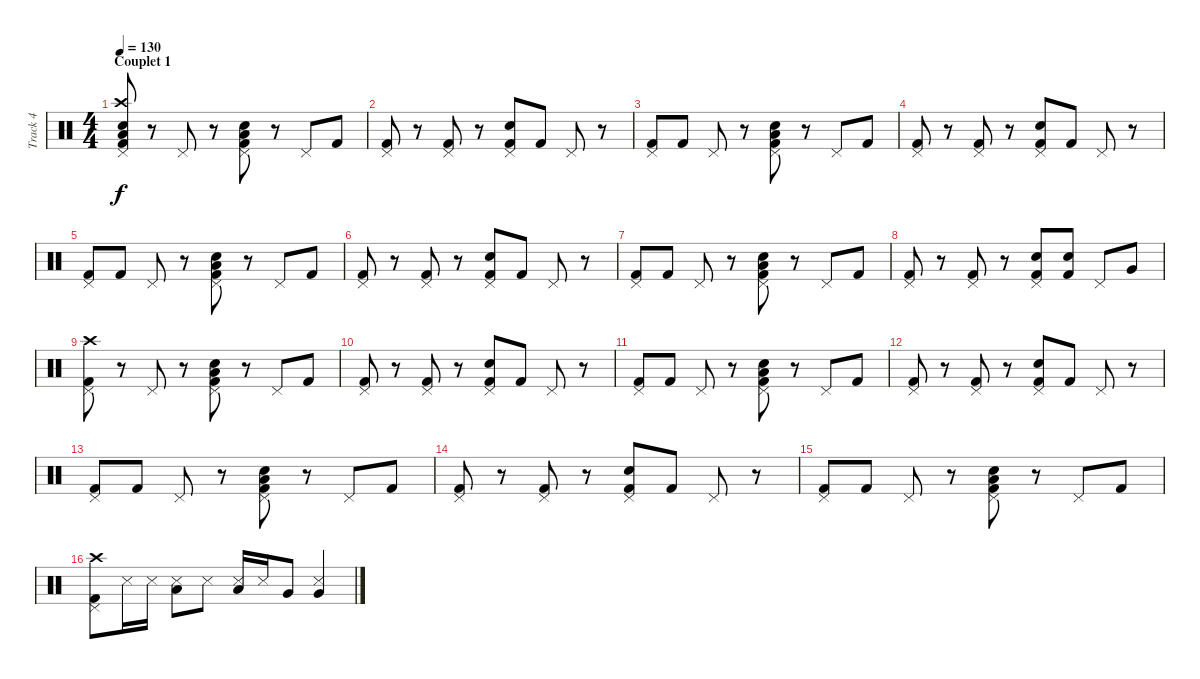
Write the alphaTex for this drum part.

\track ("Track 4" "Track 4") {instrument percussion}
\staff {score}
\articulation defaults
\ts (4 4)
\section ("" "Couplet 1")
\tempo 130
\clef neutral
\ks c
("Low Floor Tom (hit)" "Snare (hit) 2" "Crash high (hit)" "Kick (hit) 2" "Pedal Hi-Hat (hit)").8{dy f} r.8 "Pedal Hi-Hat (hit)".8 r.8 ("Low Tom (hit)" "Snare (hit) 2" "Kick (hit) 2" "Pedal Hi-Hat (hit)").8 r.8 "Pedal Hi-Hat (hit)".8 "Kick (hit) 2".8 |
("Kick (hit) 2" "Pedal Hi-Hat (hit)").8 r.8 ("Pedal Hi-Hat (hit)" "Kick (hit) 2").8 r.8 ("Pedal Hi-Hat (hit)" "Kick (hit) 2" "Snare (hit) 2").8 "Kick (hit) 2".8 "Pedal Hi-Hat (hit)".8 r.8 |
("Kick (hit) 2" "Pedal Hi-Hat (hit)").8 "Kick (hit) 2".8 "Pedal Hi-Hat (hit)".8 r.8 ("Low Tom (hit)" "Snare (hit) 2" "Kick (hit) 2" "Pedal Hi-Hat (hit)").8 r.8 "Pedal Hi-Hat (hit)".8 "Kick (hit) 2".8 |
("Kick (hit) 2" "Pedal Hi-Hat (hit)").8 r.8 ("Pedal Hi-Hat (hit)" "Kick (hit) 2").8 r.8 ("Pedal Hi-Hat (hit)" "Kick (hit) 2" "Snare (hit) 2").8 "Kick (hit) 2".8 "Pedal Hi-Hat (hit)".8 r.8 |
("Kick (hit) 2" "Pedal Hi-Hat (hit)").8 "Kick (hit) 2".8 "Pedal Hi-Hat (hit)".8 r.8 ("Low Tom (hit)" "Snare (hit) 2" "Kick (hit) 2" "Pedal Hi-Hat (hit)").8 r.8 "Pedal Hi-Hat (hit)".8 "Kick (hit) 2".8 |
("Kick (hit) 2" "Pedal Hi-Hat (hit)").8 r.8 ("Pedal Hi-Hat (hit)" "Kick (hit) 2").8 r.8 ("Pedal Hi-Hat (hit)" "Kick (hit) 2" "Snare (hit) 2").8 "Kick (hit) 2".8 "Pedal Hi-Hat (hit)".8 r.8 |
("Kick (hit) 2" "Pedal Hi-Hat (hit)").8 "Kick (hit) 2".8 "Pedal Hi-Hat (hit)".8 r.8 ("Low Tom (hit)" "Snare (hit) 2" "Kick (hit) 2" "Pedal Hi-Hat (hit)").8 r.8 "Pedal Hi-Hat (hit)".8 "Kick (hit) 2".8 |
("Kick (hit) 2" "Pedal Hi-Hat (hit)").8 r.8 ("Pedal Hi-Hat (hit)" "Kick (hit) 2").8 r.8 ("Pedal Hi-Hat (hit)" "Kick (hit) 2" "Electric Snare (hit)").8 ("Kick (hit) 2" "Electric Snare (hit)").8 "Pedal Hi-Hat (hit)".8 "Very Low Tom (hit)".8 |
("Kick (hit) 2" "Pedal Hi-Hat (hit)" "Crash high (hit)").8 r.8 "Pedal Hi-Hat (hit)".8 r.8 ("Low Tom (hit)" "Snare (hit) 2" "Kick (hit) 2" "Pedal Hi-Hat (hit)").8 r.8 "Pedal Hi-Hat (hit)".8 "Kick (hit) 2".8 |
("Kick (hit) 2" "Pedal Hi-Hat (hit)").8 r.8 ("Pedal Hi-Hat (hit)" "Kick (hit) 2").8 r.8 ("Pedal Hi-Hat (hit)" "Kick (hit) 2" "Snare (hit) 2").8 "Kick (hit) 2".8 "Pedal Hi-Hat (hit)".8 r.8 |
("Kick (hit) 2" "Pedal Hi-Hat (hit)").8 "Kick (hit) 2".8 "Pedal Hi-Hat (hit)".8 r.8 ("Low Tom (hit)" "Snare (hit) 2" "Kick (hit) 2" "Pedal Hi-Hat (hit)").8 r.8 "Pedal Hi-Hat (hit)".8 "Kick (hit) 2".8 |
("Kick (hit) 2" "Pedal Hi-Hat (hit)").8 r.8 ("Pedal Hi-Hat (hit)" "Kick (hit) 2").8 r.8 ("Pedal Hi-Hat (hit)" "Kick (hit) 2" "Snare (hit) 2").8 "Kick (hit) 2".8 "Pedal Hi-Hat (hit)".8 r.8 |
("Kick (hit) 2" "Pedal Hi-Hat (hit)").8 "Kick (hit) 2".8 "Pedal Hi-Hat (hit)".8 r.8 ("Low Tom (hit)" "Snare (hit) 2" "Kick (hit) 2" "Pedal Hi-Hat (hit)").8 r.8 "Pedal Hi-Hat (hit)".8 "Kick (hit) 2".8 |
("Kick (hit) 2" "Pedal Hi-Hat (hit)").8 r.8 ("Pedal Hi-Hat (hit)" "Kick (hit) 2").8 r.8 ("Pedal Hi-Hat (hit)" "Kick (hit) 2" "Snare (hit) 2").8 "Kick (hit) 2".8 "Pedal Hi-Hat (hit)".8 r.8 |
("Kick (hit) 2" "Pedal Hi-Hat (hit)").8 "Kick (hit) 2".8 "Pedal Hi-Hat (hit)".8 r.8 ("Low Tom (hit)" "Snare (hit) 2" "Kick (hit) 2" "Pedal Hi-Hat (hit)").8 r.8 "Pedal Hi-Hat (hit)".8 "Kick (hit) 2".8 |
("Kick (hit) 2" "Pedal Hi-Hat (hit)" "Crash high (hit)").8 "Snare (side stick) 3".16 "Snare (side stick) 3".16 ("Metronome (hit)" "Low Floor Tom (hit)").8 "Metronome (hit)".8 ("Metronome (hit)" "Low Floor Tom (hit)").16 "Snare (side stick) 3".16 "Very Low Tom (hit)".8 ("Very Low Tom (hit)" "Snare (side stick) 3").4
